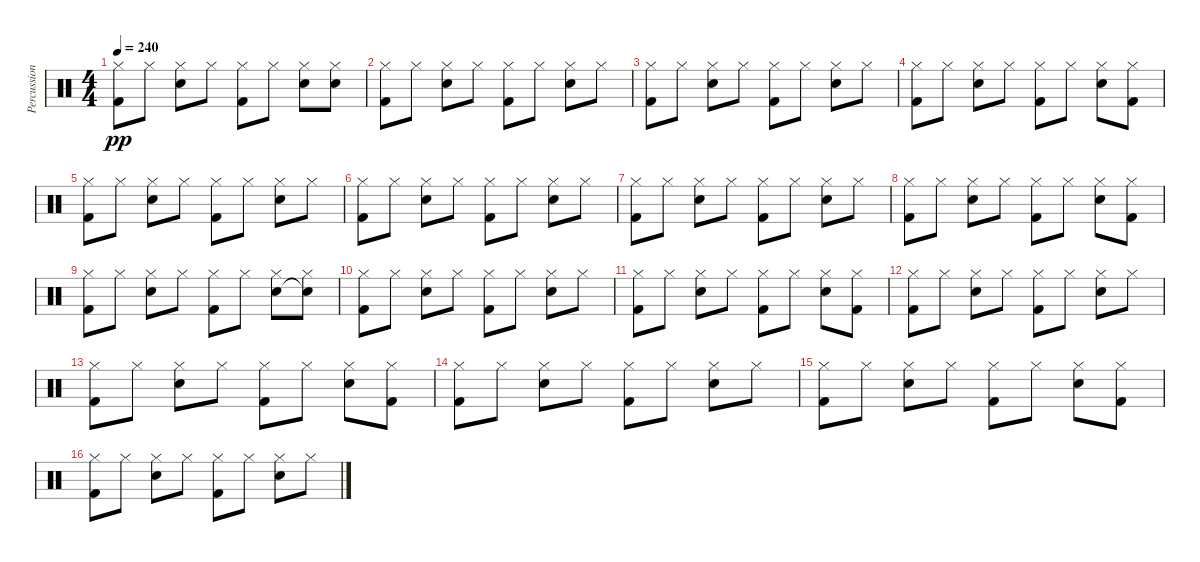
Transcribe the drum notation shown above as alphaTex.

\track ("Percussion" "Percussion") {instrument percussion}
\staff {score}
\articulation defaults
\ts (4 4)
\tempo 240
\clef neutral
\ks c
("Kick (hit) 2" "Hi-Hat (closed)").8{dy pp} "Hi-Hat (closed)".8 ("Electric Snare (hit)" "Hi-Hat (closed)").8 "Hi-Hat (closed)".8 ("Kick (hit) 2" "Hi-Hat (closed)").8 "Hi-Hat (closed)".8 ("Electric Snare (hit)" "Hi-Hat (closed)").8 ("Electric Snare (hit)" "Hi-Hat (closed)").8 |
("Kick (hit) 2" "Hi-Hat (closed)").8 "Hi-Hat (closed)".8 ("Electric Snare (hit)" "Hi-Hat (closed)").8 "Hi-Hat (closed)".8 ("Kick (hit) 2" "Hi-Hat (closed)").8 "Hi-Hat (closed)".8 ("Electric Snare (hit)" "Hi-Hat (closed)").8 "Hi-Hat (closed)".8 |
("Kick (hit) 2" "Hi-Hat (closed)").8 "Hi-Hat (closed)".8 ("Electric Snare (hit)" "Hi-Hat (closed)").8 "Hi-Hat (closed)".8 ("Kick (hit) 2" "Hi-Hat (closed)").8 "Hi-Hat (closed)".8 ("Electric Snare (hit)" "Hi-Hat (closed)").8 "Hi-Hat (closed)".8 |
("Kick (hit) 2" "Hi-Hat (closed)").8 "Hi-Hat (closed)".8 ("Electric Snare (hit)" "Hi-Hat (closed)").8 "Hi-Hat (closed)".8 ("Kick (hit) 2" "Hi-Hat (closed)").8 "Hi-Hat (closed)".8 ("Electric Snare (hit)" "Hi-Hat (closed)").8 ("Kick (hit) 2" "Hi-Hat (closed)").8 |
("Kick (hit) 2" "Hi-Hat (closed)").8 "Hi-Hat (closed)".8 ("Electric Snare (hit)" "Hi-Hat (closed)").8 "Hi-Hat (closed)".8 ("Kick (hit) 2" "Hi-Hat (closed)").8 "Hi-Hat (closed)".8 ("Electric Snare (hit)" "Hi-Hat (closed)").8 "Hi-Hat (closed)".8 |
("Kick (hit) 2" "Hi-Hat (closed)").8 "Hi-Hat (closed)".8 ("Electric Snare (hit)" "Hi-Hat (closed)").8 "Hi-Hat (closed)".8 ("Kick (hit) 2" "Hi-Hat (closed)").8 "Hi-Hat (closed)".8 ("Electric Snare (hit)" "Hi-Hat (closed)").8 "Hi-Hat (closed)".8 |
("Kick (hit) 2" "Hi-Hat (closed)").8 "Hi-Hat (closed)".8 ("Electric Snare (hit)" "Hi-Hat (closed)").8 "Hi-Hat (closed)".8 ("Kick (hit) 2" "Hi-Hat (closed)").8 "Hi-Hat (closed)".8 ("Electric Snare (hit)" "Hi-Hat (closed)").8 "Hi-Hat (closed)".8 |
("Kick (hit) 2" "Hi-Hat (closed)").8 "Hi-Hat (closed)".8 ("Electric Snare (hit)" "Hi-Hat (closed)").8 "Hi-Hat (closed)".8 ("Kick (hit) 2" "Hi-Hat (closed)").8 "Hi-Hat (closed)".8 ("Electric Snare (hit)" "Hi-Hat (closed)").8 ("Kick (hit) 2" "Hi-Hat (closed)").8 |
("Kick (hit) 2" "Hi-Hat (closed)").8 "Hi-Hat (closed)".8 ("Electric Snare (hit)" "Hi-Hat (closed)").8 "Hi-Hat (closed)".8 ("Kick (hit) 2" "Hi-Hat (closed)").8 "Hi-Hat (closed)".8 ("Electric Snare (hit)" "Hi-Hat (closed)").8 ("Electric Snare (hit)"{t} "Hi-Hat (closed)").8 |
("Kick (hit) 2" "Hi-Hat (closed)").8 "Hi-Hat (closed)".8 ("Electric Snare (hit)" "Hi-Hat (closed)").8 "Hi-Hat (closed)".8 ("Kick (hit) 2" "Hi-Hat (closed)").8 "Hi-Hat (closed)".8 ("Electric Snare (hit)" "Hi-Hat (closed)").8 "Hi-Hat (closed)".8 |
("Kick (hit) 2" "Hi-Hat (closed)").8 "Hi-Hat (closed)".8 ("Electric Snare (hit)" "Hi-Hat (closed)").8 "Hi-Hat (closed)".8 ("Kick (hit) 2" "Hi-Hat (closed)").8 "Hi-Hat (closed)".8 ("Electric Snare (hit)" "Hi-Hat (closed)").8 ("Kick (hit) 2" "Hi-Hat (closed)").8 |
("Kick (hit) 2" "Hi-Hat (closed)").8 "Hi-Hat (closed)".8 ("Electric Snare (hit)" "Hi-Hat (closed)").8 "Hi-Hat (closed)".8 ("Kick (hit) 2" "Hi-Hat (closed)").8 "Hi-Hat (closed)".8 ("Electric Snare (hit)" "Hi-Hat (closed)").8 "Hi-Hat (closed)".8 |
("Kick (hit) 2" "Hi-Hat (closed)").8 "Hi-Hat (closed)".8 ("Electric Snare (hit)" "Hi-Hat (closed)").8 "Hi-Hat (closed)".8 ("Kick (hit) 2" "Hi-Hat (closed)").8 "Hi-Hat (closed)".8 ("Electric Snare (hit)" "Hi-Hat (closed)").8 ("Kick (hit) 2" "Hi-Hat (closed)").8 |
("Kick (hit) 2" "Hi-Hat (closed)").8 "Hi-Hat (closed)".8 ("Electric Snare (hit)" "Hi-Hat (closed)").8 "Hi-Hat (closed)".8 ("Kick (hit) 2" "Hi-Hat (closed)").8 "Hi-Hat (closed)".8 ("Electric Snare (hit)" "Hi-Hat (closed)").8 "Hi-Hat (closed)".8 |
("Kick (hit) 2" "Hi-Hat (closed)").8 "Hi-Hat (closed)".8 ("Electric Snare (hit)" "Hi-Hat (closed)").8 "Hi-Hat (closed)".8 ("Kick (hit) 2" "Hi-Hat (closed)").8 "Hi-Hat (closed)".8 ("Electric Snare (hit)" "Hi-Hat (closed)").8 ("Kick (hit) 2" "Hi-Hat (closed)").8 |
("Kick (hit) 2" "Hi-Hat (closed)").8 "Hi-Hat (closed)".8 ("Electric Snare (hit)" "Hi-Hat (closed)").8 "Hi-Hat (closed)".8 ("Kick (hit) 2" "Hi-Hat (closed)").8 "Hi-Hat (closed)".8 ("Electric Snare (hit)" "Hi-Hat (closed)").8 "Hi-Hat (closed)".8
